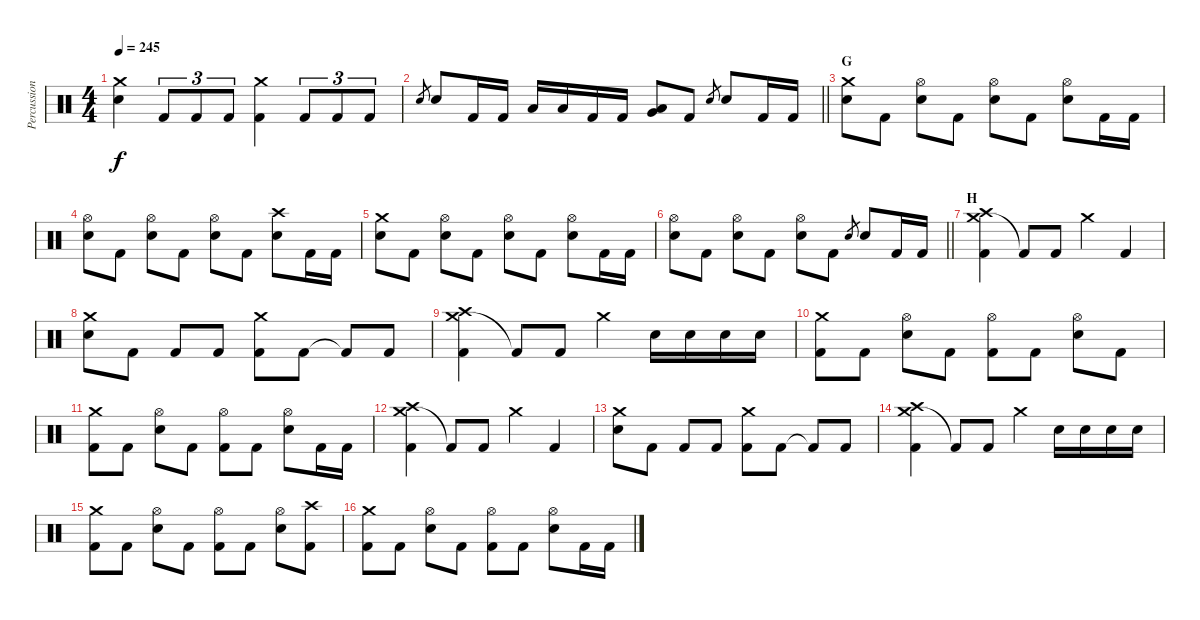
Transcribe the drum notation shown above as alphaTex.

\track ("Percussion" "Percussion") {instrument percussion}
\staff {score}
\articulation defaults
\ts (4 4)
\tempo 245
\clef neutral
\ks c
("Crash medium (hit)" "Electric Snare (hit)").4{dy f} "Kick (hit) 2".8{tu (3 2)} "Kick (hit) 2".8{tu (3 2)} "Kick (hit) 2".8{tu (3 2)} ("Crash medium (hit)" "Kick (hit) 2").4 "Kick (hit) 2".8{tu (3 2)} "Kick (hit) 2".8{tu (3 2)} "Kick (hit) 2".8{tu (3 2)} |
\barLineRight lightlight "Electric Snare (hit)".8{gr} "Electric Snare (hit)".8 "Kick (hit) 2".16 "Kick (hit) 2".16 "Low Tom (hit)".16 "Low Tom (hit)".16 "Kick (hit) 2".16 "Kick (hit) 2".16
("Very Low Tom (hit)" "Low Floor Tom (hit)").8 "Kick (hit) 2".8 "Electric Snare (hit)".8{gr} "Electric Snare (hit)".8 "Kick (hit) 2".16 "Kick (hit) 2".16 |
\section ("" "G")
("Crash medium (hit)" "Electric Snare (hit)").8 "Kick (hit) 2".8 ("Hi-Hat (open)" "Electric Snare (hit)").8 "Kick (hit) 2".8 ("Hi-Hat (open)" "Electric Snare (hit)").8 "Kick (hit) 2".8 ("Hi-Hat (open)" "Electric Snare (hit)").8 "Kick (hit) 2".16 "Kick (hit) 2".16 |
("Hi-Hat (open)" "Electric Snare (hit)").8 "Kick (hit) 2".8 ("Hi-Hat (open)" "Electric Snare (hit)").8 "Kick (hit) 2".8 ("Hi-Hat (open)" "Electric Snare (hit)").8 "Kick (hit) 2".8 ("Crash high (hit)" "Electric Snare (hit)").8 "Kick (hit) 2".16 "Kick (hit) 2".16 |
("Crash medium (hit)" "Electric Snare (hit)").8 "Kick (hit) 2".8 ("Hi-Hat (open)" "Electric Snare (hit)").8 "Kick (hit) 2".8 ("Hi-Hat (open)" "Electric Snare (hit)").8 "Kick (hit) 2".8 ("Hi-Hat (open)" "Electric Snare (hit)").8 "Kick (hit) 2".16 "Kick (hit) 2".16 |
\barLineRight lightlight
("Hi-Hat (open)" "Electric Snare (hit)").8 "Kick (hit) 2".8 ("Hi-Hat (open)" "Electric Snare (hit)").8 "Kick (hit) 2".8 ("Hi-Hat (open)" "Electric Snare (hit)").8 "Kick (hit) 2".8 "Electric Snare (hit)".8{gr} "Electric Snare (hit)".8 "Kick (hit) 2".16 "Kick (hit) 2".16 |
\section ("" "H")
("Crash medium (hit)" "Crash high (hit)" "Kick (hit) 2").4 "Kick (hit) 2"{t}.8 "Kick (hit) 2".8 "Crash medium (hit)".4 "Kick (hit) 2".4 |
("Crash medium (hit)" "Electric Snare (hit)").8 "Kick (hit) 2".8 "Kick (hit) 2".8 "Kick (hit) 2".8 ("Crash medium (hit)" "Kick (hit) 2").8 "Kick (hit) 2".8 "Kick (hit) 2"{t}.8 "Kick (hit) 2".8 |
("Crash medium (hit)" "Crash high (hit)" "Kick (hit) 2").4 "Kick (hit) 2"{t}.8 "Kick (hit) 2".8 "Crash medium (hit)".4 "Electric Snare (hit)".16 "Electric Snare (hit)".16 "Electric Snare (hit)".16 "Electric Snare (hit)".16 |
("Crash medium (hit)" "Kick (hit) 2").8 "Kick (hit) 2".8 ("Hi-Hat (open)" "Electric Snare (hit)").8 "Kick (hit) 2".8 ("Hi-Hat (open)" "Kick (hit) 2").8 "Kick (hit) 2".8 ("Hi-Hat (open)" "Electric Snare (hit)").8 "Kick (hit) 2".8 |
("Crash medium (hit)" "Kick (hit) 2").8 "Kick (hit) 2".8 ("Hi-Hat (open)" "Electric Snare (hit)").8 "Kick (hit) 2".8 ("Hi-Hat (open)" "Kick (hit) 2").8 "Kick (hit) 2".8 ("Hi-Hat (open)" "Electric Snare (hit)").8 "Kick (hit) 2".16 "Kick (hit) 2".16 |
("Crash medium (hit)" "Crash high (hit)" "Kick (hit) 2").4 "Kick (hit) 2"{t}.8 "Kick (hit) 2".8 "Crash medium (hit)".4 "Kick (hit) 2".4 |
("Crash medium (hit)" "Electric Snare (hit)").8 "Kick (hit) 2".8 "Kick (hit) 2".8 "Kick (hit) 2".8 ("Crash medium (hit)" "Kick (hit) 2").8 "Kick (hit) 2".8 "Kick (hit) 2"{t}.8 "Kick (hit) 2".8 |
("Crash medium (hit)" "Crash high (hit)" "Kick (hit) 2").4 "Kick (hit) 2"{t}.8 "Kick (hit) 2".8 "Crash medium (hit)".4 "Electric Snare (hit)".16 "Electric Snare (hit)".16 "Electric Snare (hit)".16 "Electric Snare (hit)".16 |
("Crash medium (hit)" "Kick (hit) 2").8 "Kick (hit) 2".8 ("Hi-Hat (open)" "Electric Snare (hit)").8 "Kick (hit) 2".8 ("Hi-Hat (open)" "Kick (hit) 2").8 "Kick (hit) 2".8 ("Hi-Hat (open)" "Electric Snare (hit)").8 ("Crash high (hit)" "Kick (hit) 2").8 |
("Crash medium (hit)" "Kick (hit) 2").8 "Kick (hit) 2".8 ("Hi-Hat (open)" "Electric Snare (hit)").8 "Kick (hit) 2".8 ("Hi-Hat (open)" "Kick (hit) 2").8 "Kick (hit) 2".8 ("Hi-Hat (open)" "Electric Snare (hit)").8 "Kick (hit) 2".16 "Kick (hit) 2".16
